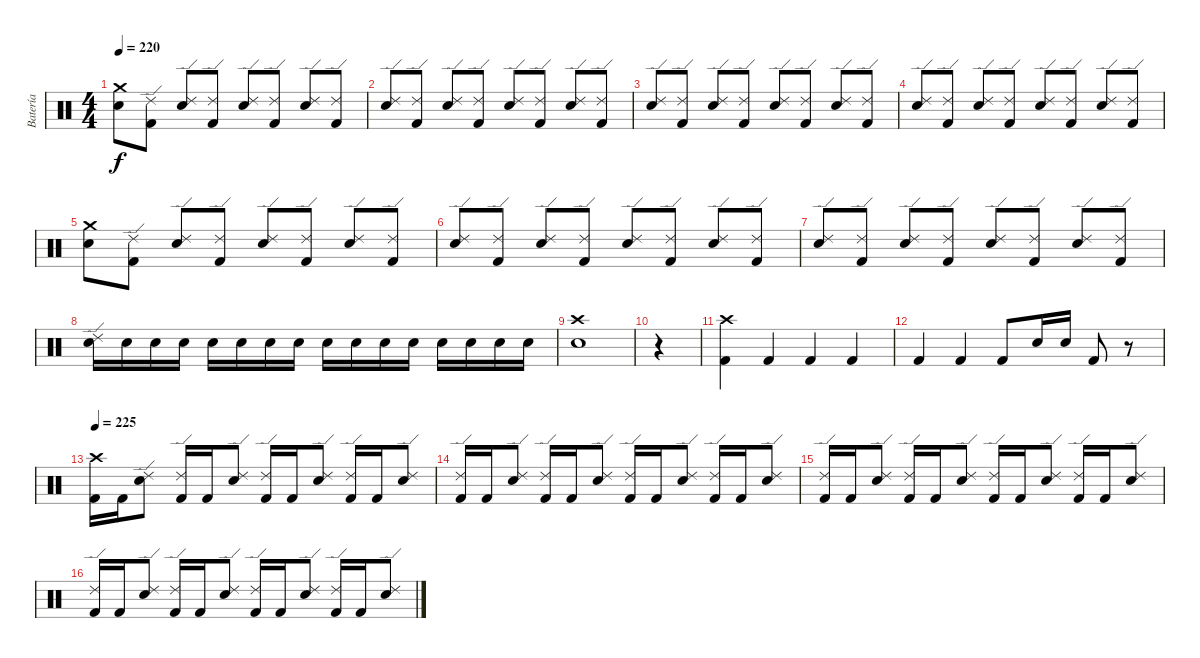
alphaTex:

\track ("Batería" "Batería") {instrument percussion}
\staff {score}
\articulation defaults
\ts (4 4)
\tempo 220
\clef neutral
\ks c
("Crash medium (hit)" "Snare (hit) 2").8{dy f} ("Ride (edge) 2" "Kick (hit) 2").8 ("Ride (edge) 2" "Snare (hit) 2").8 ("Ride (edge) 2" "Kick (hit) 2").8 ("Ride (edge) 2" "Snare (hit) 2").8 ("Ride (edge) 2" "Kick (hit) 2").8 ("Ride (edge) 2" "Snare (hit) 2").8 ("Ride (edge) 2" "Kick (hit) 2").8 |
("Ride (edge) 2" "Snare (hit) 2").8 ("Ride (edge) 2" "Kick (hit) 2").8 ("Ride (edge) 2" "Snare (hit) 2").8 ("Ride (edge) 2" "Kick (hit) 2").8 ("Ride (edge) 2" "Snare (hit) 2").8 ("Ride (edge) 2" "Kick (hit) 2").8 ("Ride (edge) 2" "Snare (hit) 2").8 ("Ride (edge) 2" "Kick (hit) 2").8 |
("Ride (edge) 2" "Snare (hit) 2").8 ("Ride (edge) 2" "Kick (hit) 2").8 ("Ride (edge) 2" "Snare (hit) 2").8 ("Ride (edge) 2" "Kick (hit) 2").8 ("Ride (edge) 2" "Snare (hit) 2").8 ("Ride (edge) 2" "Kick (hit) 2").8 ("Ride (edge) 2" "Snare (hit) 2").8 ("Ride (edge) 2" "Kick (hit) 2").8 |
("Ride (edge) 2" "Snare (hit) 2").8 ("Ride (edge) 2" "Kick (hit) 2").8 ("Ride (edge) 2" "Snare (hit) 2").8 ("Ride (edge) 2" "Kick (hit) 2").8 ("Ride (edge) 2" "Snare (hit) 2").8 ("Ride (edge) 2" "Kick (hit) 2").8 ("Ride (edge) 2" "Snare (hit) 2").8 ("Ride (edge) 2" "Kick (hit) 2").8 |
("Crash medium (hit)" "Snare (hit) 2").8 ("Ride (edge) 2" "Kick (hit) 2").8 ("Ride (edge) 2" "Snare (hit) 2").8 ("Ride (edge) 2" "Kick (hit) 2").8 ("Ride (edge) 2" "Snare (hit) 2").8 ("Ride (edge) 2" "Kick (hit) 2").8 ("Ride (edge) 2" "Snare (hit) 2").8 ("Ride (edge) 2" "Kick (hit) 2").8 |
("Ride (edge) 2" "Snare (hit) 2").8 ("Ride (edge) 2" "Kick (hit) 2").8 ("Ride (edge) 2" "Snare (hit) 2").8 ("Ride (edge) 2" "Kick (hit) 2").8 ("Ride (edge) 2" "Snare (hit) 2").8 ("Ride (edge) 2" "Kick (hit) 2").8 ("Ride (edge) 2" "Snare (hit) 2").8 ("Ride (edge) 2" "Kick (hit) 2").8 |
("Ride (edge) 2" "Snare (hit) 2").8 ("Ride (edge) 2" "Kick (hit) 2").8 ("Ride (edge) 2" "Snare (hit) 2").8 ("Ride (edge) 2" "Kick (hit) 2").8 ("Ride (edge) 2" "Snare (hit) 2").8 ("Ride (edge) 2" "Kick (hit) 2").8 ("Ride (edge) 2" "Snare (hit) 2").8 ("Ride (edge) 2" "Kick (hit) 2").8 |
("Ride (edge) 2" "Snare (hit) 2").16 "Snare (hit) 2".16 "Snare (hit) 2".16 "Snare (hit) 2".16 "Snare (hit) 2".16 "Snare (hit) 2".16 "Snare (hit) 2".16 "Snare (hit) 2".16 "Snare (hit) 2".16 "Snare (hit) 2".16 "Snare (hit) 2".16 "Snare (hit) 2".16 "Snare (hit) 2".16 "Snare (hit) 2".16 "Snare (hit) 2".16 "Snare (hit) 2".16 |
("Crash high (hit)" "Snare (hit) 2").1 |
r.4 |
("Crash high (hit)" "Kick (hit) 2").4 "Kick (hit) 2".4 "Kick (hit) 2".4 "Kick (hit) 2".4 |
"Kick (hit) 2".4 "Kick (hit) 2".4 "Kick (hit) 2".8 "Snare (hit) 2".16 "Snare (hit) 2".16 "Kick (hit) 2".8 r.8 |
\tempo 225
("Crash high (hit)" "Kick (hit) 2").16 "Kick (hit) 2".16 ("Ride (edge) 2" "Snare (hit) 2").8 ("Ride (edge) 2" "Kick (hit) 2").16 "Kick (hit) 2".16 ("Ride (edge) 2" "Snare (hit) 2").8 ("Ride (edge) 2" "Kick (hit) 2").16 "Kick (hit) 2".16 ("Ride (edge) 2" "Snare (hit) 2").8 ("Ride (edge) 2" "Kick (hit) 2").16 "Kick (hit) 2".16 ("Ride (edge) 2" "Snare (hit) 2").8 |
("Ride (edge) 2" "Kick (hit) 2").16 "Kick (hit) 2".16 ("Ride (edge) 2" "Snare (hit) 2").8 ("Ride (edge) 2" "Kick (hit) 2").16 "Kick (hit) 2".16 ("Ride (edge) 2" "Snare (hit) 2").8 ("Ride (edge) 2" "Kick (hit) 2").16 "Kick (hit) 2".16 ("Ride (edge) 2" "Snare (hit) 2").8 ("Ride (edge) 2" "Kick (hit) 2").16 "Kick (hit) 2".16 ("Ride (edge) 2" "Snare (hit) 2").8 |
("Ride (edge) 2" "Kick (hit) 2").16 "Kick (hit) 2".16 ("Ride (edge) 2" "Snare (hit) 2").8 ("Ride (edge) 2" "Kick (hit) 2").16 "Kick (hit) 2".16 ("Ride (edge) 2" "Snare (hit) 2").8 ("Ride (edge) 2" "Kick (hit) 2").16 "Kick (hit) 2".16 ("Ride (edge) 2" "Snare (hit) 2").8 ("Ride (edge) 2" "Kick (hit) 2").16 "Kick (hit) 2".16 ("Ride (edge) 2" "Snare (hit) 2").8 |
("Ride (edge) 2" "Kick (hit) 2").16 "Kick (hit) 2".16 ("Ride (edge) 2" "Snare (hit) 2").8 ("Ride (edge) 2" "Kick (hit) 2").16 "Kick (hit) 2".16 ("Ride (edge) 2" "Snare (hit) 2").8 ("Ride (edge) 2" "Kick (hit) 2").16 "Kick (hit) 2".16 ("Ride (edge) 2" "Snare (hit) 2").8 ("Ride (edge) 2" "Kick (hit) 2").16 "Kick (hit) 2".16 ("Ride (edge) 2" "Snare (hit) 2").8
